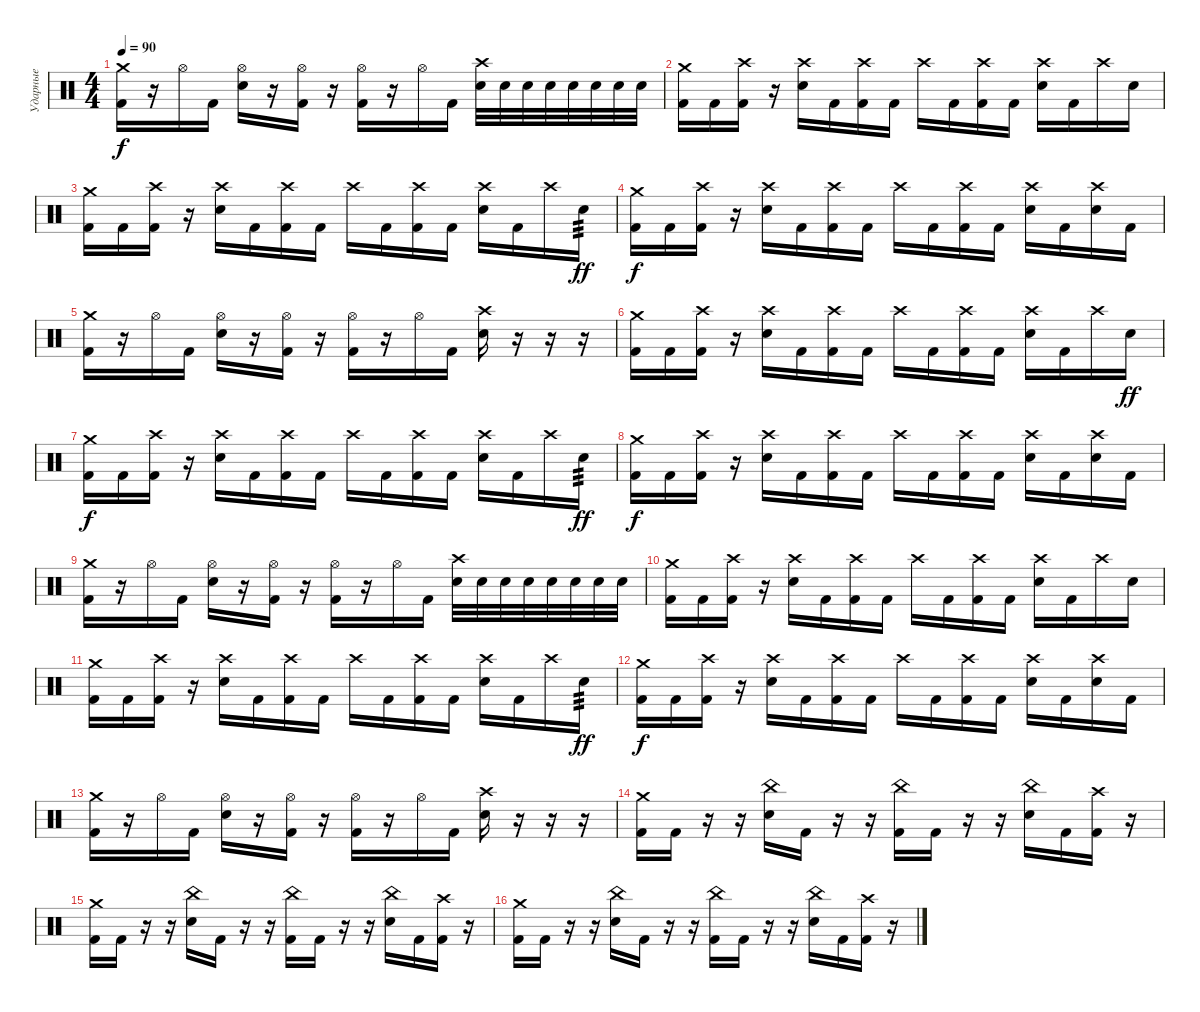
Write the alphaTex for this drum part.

\track ("Ударные" "Ударные") {instrument percussion}
\staff {score}
\articulation defaults
\ts (4 4)
\tempo 90
\clef neutral
\ks c
("Crash medium (hit)" "Kick (hit) 2").16{dy f} r.16 "Hi-Hat (open)".16 "Kick (hit) 2".16 ("Hi-Hat (open)" "Electric Snare (hit)").16 r.16 ("Hi-Hat (open)" "Kick (hit) 2").16 r.16 ("Hi-Hat (open)" "Kick (hit) 2").16 r.16 "Hi-Hat (open)".16 "Kick (hit) 2".16 ("Crash high (hit)" "Electric Snare (hit)").32 "Electric Snare (hit)".32 "Electric Snare (hit)".32 "Electric Snare (hit)".32 "Electric Snare (hit)".32 "Electric Snare (hit)".32 "Electric Snare (hit)".32 "Electric Snare (hit)".32 |
("Crash medium (hit)" "Kick (hit) 2").16 "Kick (hit) 2".16 ("Crash high (hit)" "Kick (hit) 2").16 r.16 ("Crash high (hit)" "Electric Snare (hit)").16 "Kick (hit) 2".16 ("Crash high (hit)" "Kick (hit) 2").16 "Kick (hit) 2".16 "Crash high (hit)".16 "Kick (hit) 2".16 ("Crash high (hit)" "Kick (hit) 2").16 "Kick (hit) 2".16 ("Crash high (hit)" "Electric Snare (hit)").16 "Kick (hit) 2".16 "Crash high (hit)".16 "Electric Snare (hit)".16 |
("Crash medium (hit)" "Kick (hit) 2").16 "Kick (hit) 2".16 ("Crash high (hit)" "Kick (hit) 2").16 r.16 ("Crash high (hit)" "Electric Snare (hit)").16 "Kick (hit) 2".16 ("Crash high (hit)" "Kick (hit) 2").16 "Kick (hit) 2".16 "Crash high (hit)".16 "Kick (hit) 2".16 ("Crash high (hit)" "Kick (hit) 2").16 "Kick (hit) 2".16 ("Crash high (hit)" "Electric Snare (hit)").16 "Kick (hit) 2".16 "Crash high (hit)".16 "Electric Snare (hit)".16{tp 3 dy ff} |
("Crash medium (hit)" "Kick (hit) 2").16{dy f} "Kick (hit) 2".16 ("Crash high (hit)" "Kick (hit) 2").16 r.16 ("Crash high (hit)" "Electric Snare (hit)").16 "Kick (hit) 2".16 ("Crash high (hit)" "Kick (hit) 2").16 "Kick (hit) 2".16 "Crash high (hit)".16 "Kick (hit) 2".16 ("Crash high (hit)" "Kick (hit) 2").16 "Kick (hit) 2".16 ("Crash high (hit)" "Electric Snare (hit)").16 "Kick (hit) 2".16 ("Crash high (hit)" "Electric Snare (hit)").16 "Kick (hit) 2".16 |
("Crash medium (hit)" "Kick (hit) 2").16 r.16 "Hi-Hat (open)".16 "Kick (hit) 2".16 ("Hi-Hat (open)" "Electric Snare (hit)").16 r.16 ("Hi-Hat (open)" "Kick (hit) 2").16 r.16 ("Hi-Hat (open)" "Kick (hit) 2").16 r.16 "Hi-Hat (open)".16 "Kick (hit) 2".16 ("Crash high (hit)" "Electric Snare (hit)").16 r.16 r.16 r.16 |
("Crash medium (hit)" "Kick (hit) 2").16 "Kick (hit) 2".16 ("Crash high (hit)" "Kick (hit) 2").16 r.16 ("Crash high (hit)" "Electric Snare (hit)").16 "Kick (hit) 2".16 ("Crash high (hit)" "Kick (hit) 2").16 "Kick (hit) 2".16 "Crash high (hit)".16 "Kick (hit) 2".16 ("Crash high (hit)" "Kick (hit) 2").16 "Kick (hit) 2".16 ("Crash high (hit)" "Electric Snare (hit)").16 "Kick (hit) 2".16 "Crash high (hit)".16 "Electric Snare (hit)".16{dy ff} |
("Crash medium (hit)" "Kick (hit) 2").16{dy f} "Kick (hit) 2".16 ("Crash high (hit)" "Kick (hit) 2").16 r.16 ("Crash high (hit)" "Electric Snare (hit)").16 "Kick (hit) 2".16 ("Crash high (hit)" "Kick (hit) 2").16 "Kick (hit) 2".16 "Crash high (hit)".16 "Kick (hit) 2".16 ("Crash high (hit)" "Kick (hit) 2").16 "Kick (hit) 2".16 ("Crash high (hit)" "Electric Snare (hit)").16 "Kick (hit) 2".16 "Crash high (hit)".16 "Electric Snare (hit)".16{tp 3 dy ff} |
("Crash medium (hit)" "Kick (hit) 2").16{dy f} "Kick (hit) 2".16 ("Crash high (hit)" "Kick (hit) 2").16 r.16 ("Crash high (hit)" "Electric Snare (hit)").16 "Kick (hit) 2".16 ("Crash high (hit)" "Kick (hit) 2").16 "Kick (hit) 2".16 "Crash high (hit)".16 "Kick (hit) 2".16 ("Crash high (hit)" "Kick (hit) 2").16 "Kick (hit) 2".16 ("Crash high (hit)" "Electric Snare (hit)").16 "Kick (hit) 2".16 ("Crash high (hit)" "Electric Snare (hit)").16 "Kick (hit) 2".16 |
("Crash medium (hit)" "Kick (hit) 2").16 r.16 "Hi-Hat (open)".16 "Kick (hit) 2".16 ("Hi-Hat (open)" "Electric Snare (hit)").16 r.16 ("Hi-Hat (open)" "Kick (hit) 2").16 r.16 ("Hi-Hat (open)" "Kick (hit) 2").16 r.16 "Hi-Hat (open)".16 "Kick (hit) 2".16 ("Crash high (hit)" "Electric Snare (hit)").32 "Electric Snare (hit)".32 "Electric Snare (hit)".32 "Electric Snare (hit)".32 "Electric Snare (hit)".32 "Electric Snare (hit)".32 "Electric Snare (hit)".32 "Electric Snare (hit)".32 |
("Crash medium (hit)" "Kick (hit) 2").16 "Kick (hit) 2".16 ("Crash high (hit)" "Kick (hit) 2").16 r.16 ("Crash high (hit)" "Electric Snare (hit)").16 "Kick (hit) 2".16 ("Crash high (hit)" "Kick (hit) 2").16 "Kick (hit) 2".16 "Crash high (hit)".16 "Kick (hit) 2".16 ("Crash high (hit)" "Kick (hit) 2").16 "Kick (hit) 2".16 ("Crash high (hit)" "Electric Snare (hit)").16 "Kick (hit) 2".16 "Crash high (hit)".16 "Electric Snare (hit)".16 |
("Crash medium (hit)" "Kick (hit) 2").16 "Kick (hit) 2".16 ("Crash high (hit)" "Kick (hit) 2").16 r.16 ("Crash high (hit)" "Electric Snare (hit)").16 "Kick (hit) 2".16 ("Crash high (hit)" "Kick (hit) 2").16 "Kick (hit) 2".16 "Crash high (hit)".16 "Kick (hit) 2".16 ("Crash high (hit)" "Kick (hit) 2").16 "Kick (hit) 2".16 ("Crash high (hit)" "Electric Snare (hit)").16 "Kick (hit) 2".16 "Crash high (hit)".16 "Electric Snare (hit)".16{tp 3 dy ff} |
("Crash medium (hit)" "Kick (hit) 2").16{dy f} "Kick (hit) 2".16 ("Crash high (hit)" "Kick (hit) 2").16 r.16 ("Crash high (hit)" "Electric Snare (hit)").16 "Kick (hit) 2".16 ("Crash high (hit)" "Kick (hit) 2").16 "Kick (hit) 2".16 "Crash high (hit)".16 "Kick (hit) 2".16 ("Crash high (hit)" "Kick (hit) 2").16 "Kick (hit) 2".16 ("Crash high (hit)" "Electric Snare (hit)").16 "Kick (hit) 2".16 ("Crash high (hit)" "Electric Snare (hit)").16 "Kick (hit) 2".16 |
("Crash medium (hit)" "Kick (hit) 2").16 r.16 "Hi-Hat (open)".16 "Kick (hit) 2".16 ("Hi-Hat (open)" "Electric Snare (hit)").16 r.16 ("Hi-Hat (open)" "Kick (hit) 2").16 r.16 ("Hi-Hat (open)" "Kick (hit) 2").16 r.16 "Hi-Hat (open)".16 "Kick (hit) 2".16 ("Crash high (hit)" "Electric Snare (hit)").16 r.16 r.16 r.16 |
("Crash medium (hit)" "Kick (hit) 2").16 "Kick (hit) 2".16 r.16 r.16 ("China (hit)" "Electric Snare (hit)").16 "Kick (hit) 2".16 r.16 r.16 ("China (hit)" "Kick (hit) 2").16 "Kick (hit) 2".16 r.16 r.16 ("China (hit)" "Electric Snare (hit)").16 "Kick (hit) 2".16 ("Crash high (hit)" "Kick (hit) 2").16 r.16 |
("Crash medium (hit)" "Kick (hit) 2").16 "Kick (hit) 2".16 r.16 r.16 ("China (hit)" "Electric Snare (hit)").16 "Kick (hit) 2".16 r.16 r.16 ("China (hit)" "Kick (hit) 2").16 "Kick (hit) 2".16 r.16 r.16 ("China (hit)" "Electric Snare (hit)").16 "Kick (hit) 2".16 ("Crash high (hit)" "Kick (hit) 2").16 r.16 |
("Crash medium (hit)" "Kick (hit) 2").16 "Kick (hit) 2".16 r.16 r.16 ("China (hit)" "Electric Snare (hit)").16 "Kick (hit) 2".16 r.16 r.16 ("China (hit)" "Kick (hit) 2").16 "Kick (hit) 2".16 r.16 r.16 ("China (hit)" "Electric Snare (hit)").16 "Kick (hit) 2".16 ("Crash high (hit)" "Kick (hit) 2").16 r.16
